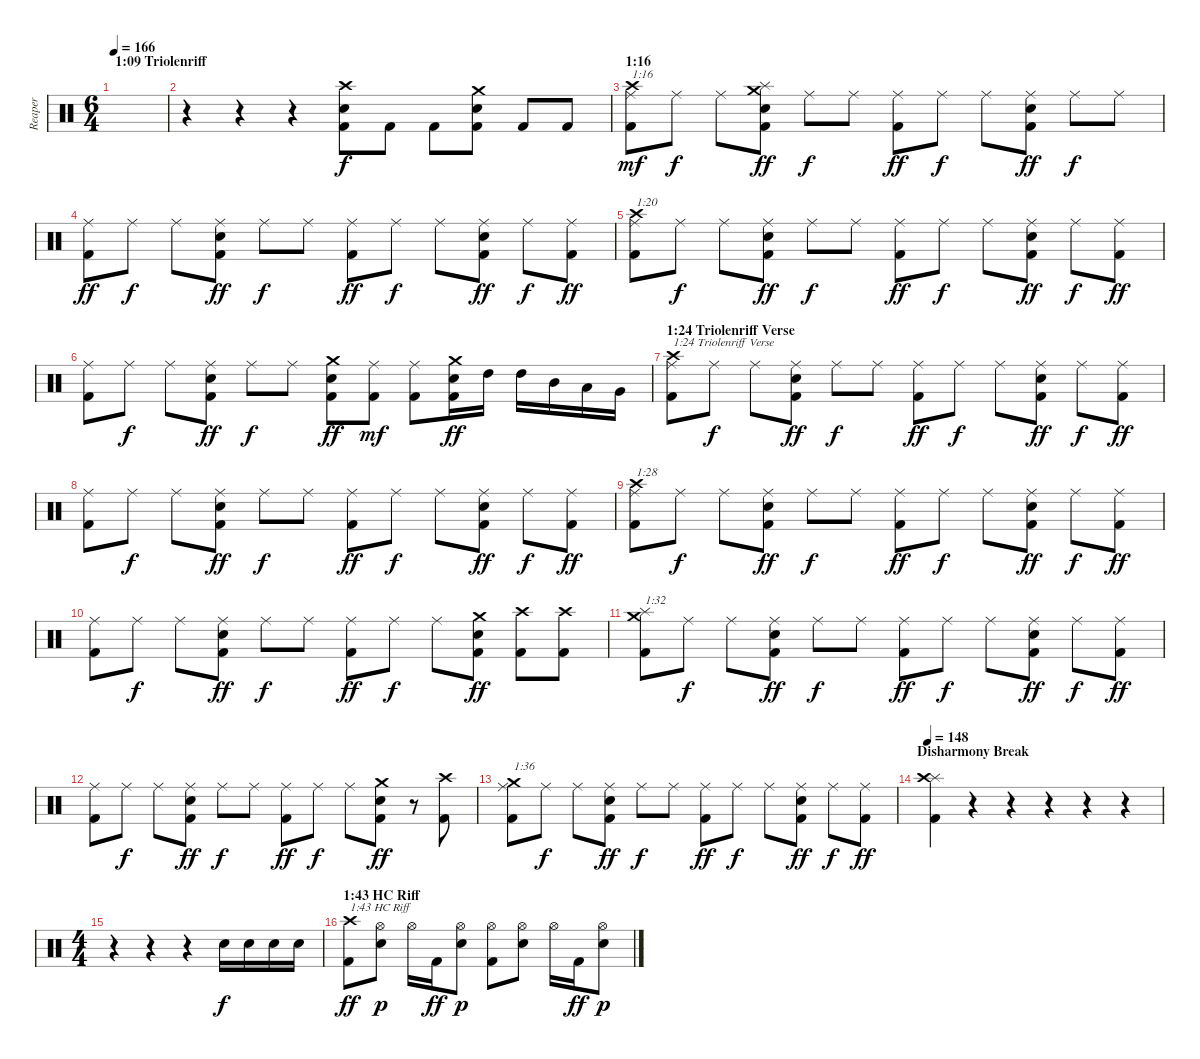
\track ("Reaper" "Reaper") {instrument percussion}
\staff {score}
\articulation defaults
\ts (6 4)
\section ("" "1:09 Triolenriff")
\tempo 166
\clef neutral
\ks c
|
r.4 r.4 r.4 ("Kick (hit) 2" "Electric Snare (hit)" "Crash high (hit)").8 "Kick (hit) 2".8 "Kick (hit) 2".8 ("Kick (hit) 2" "Electric Snare (hit)" "Crash medium (hit)").8 "Kick (hit) 2".8 "Kick (hit) 2".8 |
\section ("" "1:16")
("Kick (hit) 2" "Ride (middle)" "Crash high (hit)").8{txt "1:16" dy mf} "Ride (middle)".8{dy f} "Ride (middle)".8 ("Kick (hit) 2" "Electric Snare (hit)" "Crash medium (hit)" "Splash (hit)").8{dy ff} "Ride (middle)".8{dy f} "Ride (middle)".8 ("Kick (hit) 2" "Ride (middle)").8{dy ff} "Ride (middle)".8{dy f} "Ride (middle)".8 ("Kick (hit) 2" "Electric Snare (hit)" "Ride (middle)").8{dy ff} "Ride (middle)".8{dy f} "Ride (middle)".8 |
("Kick (hit) 2" "Ride (middle)").8{dy ff} "Ride (middle)".8{dy f} "Ride (middle)".8 ("Kick (hit) 2" "Electric Snare (hit)" "Ride (middle)").8{dy ff} "Ride (middle)".8{dy f} "Ride (middle)".8 ("Kick (hit) 2" "Ride (middle)").8{dy ff} "Ride (middle)".8{dy f} "Ride (middle)".8 ("Kick (hit) 2" "Electric Snare (hit)" "Ride (middle)").8{dy ff} "Ride (middle)".8{dy f} ("Kick (hit) 2" "Ride (middle)").8{dy ff} |
("Kick (hit) 2" "Ride (middle)" "Crash high (hit)").8{txt "1:20"} "Ride (middle)".8{dy f} "Ride (middle)".8 ("Kick (hit) 2" "Electric Snare (hit)" "Ride (middle)").8{dy ff} "Ride (middle)".8{dy f} "Ride (middle)".8 ("Kick (hit) 2" "Ride (middle)").8{dy ff} "Ride (middle)".8{dy f} "Ride (middle)".8 ("Kick (hit) 2" "Electric Snare (hit)" "Ride (middle)").8{dy ff} "Ride (middle)".8{dy f} ("Kick (hit) 2" "Ride (middle)").8{dy ff} |
("Kick (hit) 2" "Ride (middle)").8 "Ride (middle)".8{dy f} "Ride (middle)".8 ("Kick (hit) 2" "Electric Snare (hit)" "Ride (middle)").8{dy ff} "Ride (middle)".8{dy f} "Ride (middle)".8 ("Kick (hit) 2" "Electric Snare (hit)" "Crash medium (hit)").8{dy ff} ("Kick (hit) 2" "Ride (middle)").8{dy mf} ("Kick (hit) 2" "Ride (middle)").8 ("Kick (hit) 2" "Electric Snare (hit)" "Crash medium (hit)").16{dy ff} "High Tom (hit)".16 "High Tom (hit)".16 "Mid Tom (hit)".16 "Low Tom (hit)".16 "Very Low Tom (hit)".16 |
\section ("" "1:24 Triolenriff Verse")
("Kick (hit) 2" "Ride (middle)" "Crash high (hit)").8{txt "1:24 Triolenriff Verse"} "Ride (middle)".8{dy f} "Ride (middle)".8 ("Kick (hit) 2" "Electric Snare (hit)" "Ride (middle)").8{dy ff} "Ride (middle)".8{dy f} "Ride (middle)".8 ("Kick (hit) 2" "Ride (middle)").8{dy ff} "Ride (middle)".8{dy f} "Ride (middle)".8 ("Kick (hit) 2" "Electric Snare (hit)" "Ride (middle)").8{dy ff} "Ride (middle)".8{dy f} ("Kick (hit) 2" "Ride (middle)").8{dy ff} |
("Kick (hit) 2" "Ride (middle)").8 "Ride (middle)".8{dy f} "Ride (middle)".8 ("Kick (hit) 2" "Electric Snare (hit)" "Ride (middle)").8{dy ff} "Ride (middle)".8{dy f} "Ride (middle)".8 ("Kick (hit) 2" "Ride (middle)").8{dy ff} "Ride (middle)".8{dy f} "Ride (middle)".8 ("Kick (hit) 2" "Electric Snare (hit)" "Ride (middle)").8{dy ff} "Ride (middle)".8{dy f} ("Kick (hit) 2" "Ride (middle)").8{dy ff} |
("Kick (hit) 2" "Ride (middle)" "Crash high (hit)").8{txt "1:28"} "Ride (middle)".8{dy f} "Ride (middle)".8 ("Kick (hit) 2" "Electric Snare (hit)" "Ride (middle)").8{dy ff} "Ride (middle)".8{dy f} "Ride (middle)".8 ("Kick (hit) 2" "Ride (middle)").8{dy ff} "Ride (middle)".8{dy f} "Ride (middle)".8 ("Kick (hit) 2" "Electric Snare (hit)" "Ride (middle)").8{dy ff} "Ride (middle)".8{dy f} ("Kick (hit) 2" "Ride (middle)").8{dy ff} |
("Kick (hit) 2" "Ride (middle)").8 "Ride (middle)".8{dy f} "Ride (middle)".8 ("Kick (hit) 2" "Electric Snare (hit)" "Ride (middle)").8{dy ff} "Ride (middle)".8{dy f} "Ride (middle)".8 ("Kick (hit) 2" "Ride (middle)").8{dy ff} "Ride (middle)".8{dy f} "Ride (middle)".8 ("Kick (hit) 2" "Electric Snare (hit)" "Crash medium (hit)").8{dy ff} ("Kick (hit) 2" "Crash high (hit)").8 ("Kick (hit) 2" "Crash high (hit)").8 |
("Kick (hit) 2" "Splash (hit)" "Crash medium (hit)").8{txt "1:32"} "Ride (middle)".8{dy f} "Ride (middle)".8 ("Kick (hit) 2" "Electric Snare (hit)" "Ride (middle)").8{dy ff} "Ride (middle)".8{dy f} "Ride (middle)".8 ("Kick (hit) 2" "Ride (middle)").8{dy ff} "Ride (middle)".8{dy f} "Ride (middle)".8 ("Kick (hit) 2" "Electric Snare (hit)" "Ride (middle)").8{dy ff} "Ride (middle)".8{dy f} ("Kick (hit) 2" "Ride (middle)").8{dy ff} |
("Kick (hit) 2" "Ride (middle)").8 "Ride (middle)".8{dy f} "Ride (middle)".8 ("Kick (hit) 2" "Electric Snare (hit)" "Ride (middle)").8{dy ff} "Ride (middle)".8{dy f} "Ride (middle)".8 ("Kick (hit) 2" "Ride (middle)").8{dy ff} "Ride (middle)".8{dy f} "Ride (middle)".8 ("Kick (hit) 2" "Electric Snare (hit)" "Crash medium (hit)").8{dy ff} r.8 ("Kick (hit) 2" "Crash high (hit)").8 |
("Kick (hit) 2" "Ride (middle)" "Crash medium (hit)").8{txt "1:36"} "Ride (middle)".8{dy f} "Ride (middle)".8 ("Kick (hit) 2" "Electric Snare (hit)" "Ride (middle)").8{dy ff} "Ride (middle)".8{dy f} "Ride (middle)".8 ("Kick (hit) 2" "Ride (middle)").8{dy ff} "Ride (middle)".8{dy f} "Ride (middle)".8 ("Kick (hit) 2" "Electric Snare (hit)" "Ride (middle)").8{dy ff} "Ride (middle)".8{dy f} ("Kick (hit) 2" "Ride (middle)").8{dy ff} |
\section ("" "Disharmony Break")
\tempo 148
("Kick (hit) 2" "Splash (hit)" "Crash high (hit)").4 r.4 r.4 r.4 r.4 r.4 |
\ts (4 4)
r.4 r.4 r.4 "Electric Snare (hit)".16{dy f} "Electric Snare (hit)".16 "Electric Snare (hit)".16 "Electric Snare (hit)".16 |
\section ("" "1:43 HC Riff")
("Kick (hit) 2" "Crash high (hit)").8{txt "1:43 HC Riff" dy ff} ("Electric Snare (hit)" "Hi-Hat (open)").8{dy p} "Hi-Hat (open)".16 "Kick (hit) 2".16{dy ff} ("Electric Snare (hit)" "Hi-Hat (open)").8{dy p} ("Kick (hit) 2" "Hi-Hat (open)").8 ("Electric Snare (hit)" "Hi-Hat (open)").8 "Hi-Hat (open)".16 "Kick (hit) 2".16{dy ff} ("Electric Snare (hit)" "Hi-Hat (open)").8{dy p}
